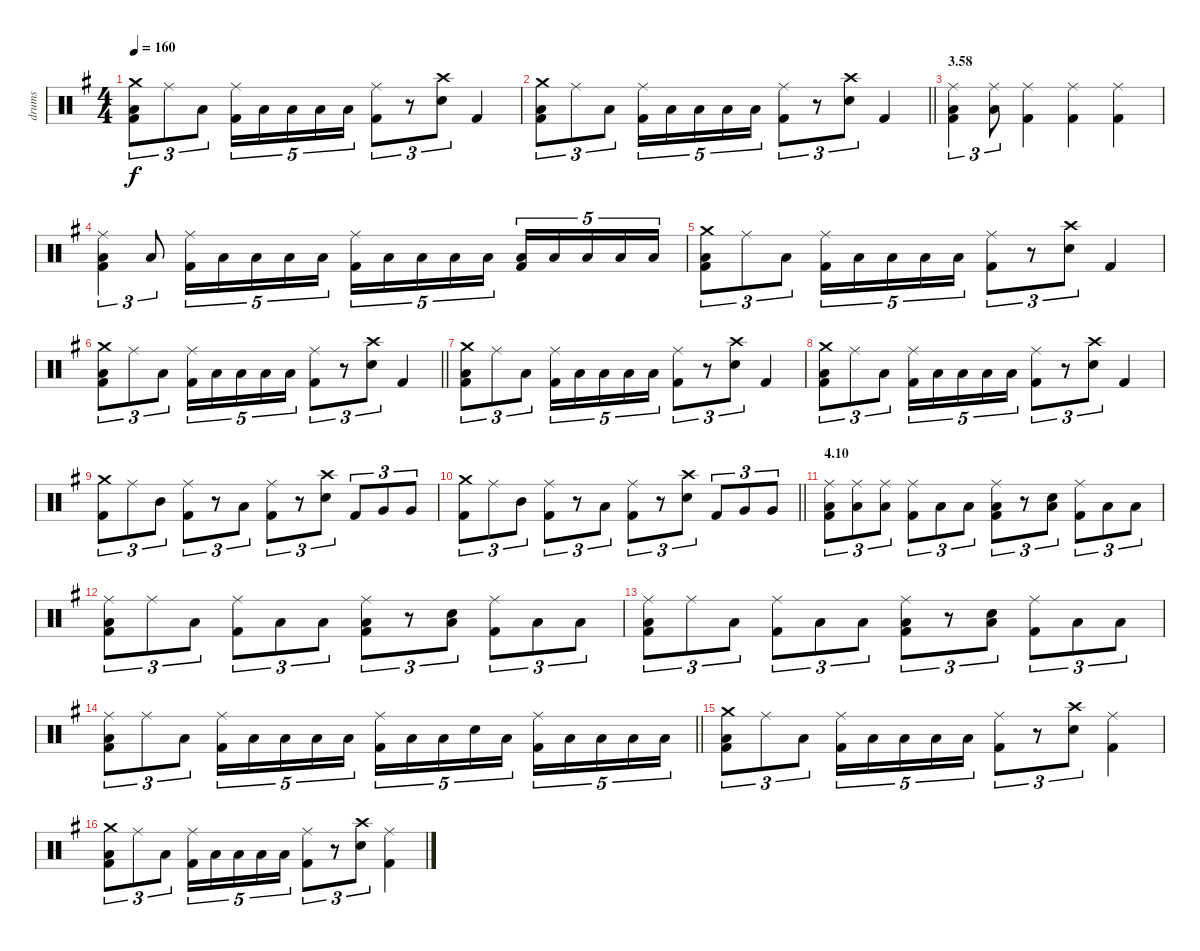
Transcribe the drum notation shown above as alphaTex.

\track ("drums" "drums") {instrument percussion}
\staff {score}
\articulation defaults
\ts (4 4)
\tempo 160
\clef neutral
\ks g
("Crash medium (hit)" "Low Tom (hit)" "Kick (hit) 2").8{tu (3 2) dy f} "Ride (middle)".8{tu (3 2)} "Low Tom (hit)".8{tu (3 2)} ("Ride (middle)" "Kick (hit) 2").16{tu (5 4)} "Low Tom (hit)".16{tu (5 4)} "Low Tom (hit)".16{tu (5 4)} "Low Tom (hit)".16{tu (5 4)} "Low Tom (hit)".16{tu (5 4)} ("Ride (middle)" "Kick (hit) 2").8{tu (3 2)} r.8{tu (3 2)} ("Crash high (hit)" "Electric Snare (hit)").8{tu (3 2)} "Kick (hit) 2".4 |
\barLineRight lightlight
("Crash medium (hit)" "Low Tom (hit)" "Kick (hit) 2").8{tu (3 2)} "Ride (middle)".8{tu (3 2)} "Low Tom (hit)".8{tu (3 2)} ("Ride (middle)" "Kick (hit) 2").16{tu (5 4)} "Low Tom (hit)".16{tu (5 4)} "Low Tom (hit)".16{tu (5 4)} "Low Tom (hit)".16{tu (5 4)} "Low Tom (hit)".16{tu (5 4)} ("Ride (middle)" "Kick (hit) 2").8{tu (3 2)} r.8{tu (3 2)} ("Crash high (hit)" "Electric Snare (hit)").8{tu (3 2)} "Kick (hit) 2".4 |
\section ("" "3.58")
("Ride (middle)" "Low Tom (hit)" "Kick (hit) 2").4{tu (3 2)} ("Ride (middle)" "Low Tom (hit)").8{tu (3 2)} ("Ride (middle)" "Kick (hit) 2").4 ("Ride (middle)" "Kick (hit) 2").4 ("Ride (middle)" "Kick (hit) 2").4 |
("Ride (middle)" "Low Tom (hit)" "Kick (hit) 2").4{tu (3 2)} "Low Tom (hit)".8{tu (3 2)} ("Ride (middle)" "Kick (hit) 2").16{tu (5 4)} "Low Tom (hit)".16{tu (5 4)} "Low Tom (hit)".16{tu (5 4)} "Low Tom (hit)".16{tu (5 4)} "Low Tom (hit)".16{tu (5 4)} ("Ride (middle)" "Kick (hit) 2").16{tu (5 4)} "Low Tom (hit)".16{tu (5 4)} "Low Tom (hit)".16{tu (5 4)} "Low Tom (hit)".16{tu (5 4)} "Low Tom (hit)".16{tu (5 4)} ("Low Tom (hit)" "Kick (hit) 2").16{tu (5 4)} "Low Tom (hit)".16{tu (5 4)} "Low Tom (hit)".16{tu (5 4)} "Low Tom (hit)".16{tu (5 4)} "Low Tom (hit)".16{tu (5 4)} |
("Crash medium (hit)" "Low Tom (hit)" "Kick (hit) 2").8{tu (3 2)} "Ride (middle)".8{tu (3 2)} "Low Tom (hit)".8{tu (3 2)} ("Ride (middle)" "Kick (hit) 2").16{tu (5 4)} "Low Tom (hit)".16{tu (5 4)} "Low Tom (hit)".16{tu (5 4)} "Low Tom (hit)".16{tu (5 4)} "Low Tom (hit)".16{tu (5 4)} ("Ride (middle)" "Kick (hit) 2").8{tu (3 2)} r.8{tu (3 2)} ("Crash high (hit)" "Electric Snare (hit)").8{tu (3 2)} "Kick (hit) 2".4 |
\barLineRight lightlight
("Crash medium (hit)" "Low Tom (hit)" "Kick (hit) 2").8{tu (3 2)} "Ride (middle)".8{tu (3 2)} "Low Tom (hit)".8{tu (3 2)} ("Ride (middle)" "Kick (hit) 2").16{tu (5 4)} "Low Tom (hit)".16{tu (5 4)} "Low Tom (hit)".16{tu (5 4)} "Low Tom (hit)".16{tu (5 4)} "Low Tom (hit)".16{tu (5 4)} ("Ride (middle)" "Kick (hit) 2").8{tu (3 2)} r.8{tu (3 2)} ("Crash high (hit)" "Electric Snare (hit)").8{tu (3 2)} "Kick (hit) 2".4 |
("Crash medium (hit)" "Low Tom (hit)" "Kick (hit) 2").8{tu (3 2)} "Ride (middle)".8{tu (3 2)} "Low Tom (hit)".8{tu (3 2)} ("Ride (middle)" "Kick (hit) 2").16{tu (5 4)} "Low Tom (hit)".16{tu (5 4)} "Low Tom (hit)".16{tu (5 4)} "Low Tom (hit)".16{tu (5 4)} "Low Tom (hit)".16{tu (5 4)} ("Ride (middle)" "Kick (hit) 2").8{tu (3 2)} r.8{tu (3 2)} ("Crash high (hit)" "Electric Snare (hit)").8{tu (3 2)} "Kick (hit) 2".4 |
("Crash medium (hit)" "Low Tom (hit)" "Kick (hit) 2").8{tu (3 2)} "Ride (middle)".8{tu (3 2)} "Low Tom (hit)".8{tu (3 2)} ("Ride (middle)" "Kick (hit) 2").16{tu (5 4)} "Low Tom (hit)".16{tu (5 4)} "Low Tom (hit)".16{tu (5 4)} "Low Tom (hit)".16{tu (5 4)} "Low Tom (hit)".16{tu (5 4)} ("Ride (middle)" "Kick (hit) 2").8{tu (3 2)} r.8{tu (3 2)} ("Crash high (hit)" "Electric Snare (hit)").8{tu (3 2)} "Kick (hit) 2".4 |
("Crash medium (hit)" "Kick (hit) 2").8{tu (3 2)} "Ride (middle)".8{tu (3 2)} "Mid Tom (hit)".8{tu (3 2)} ("Ride (middle)" "Kick (hit) 2").8{tu (3 2)} r.8{tu (3 2)} "Low Tom (hit)".8{tu (3 2)} ("Ride (middle)" "Kick (hit) 2").8{tu (3 2)} r.8{tu (3 2)} ("Crash high (hit)" "Electric Snare (hit)").8{tu (3 2)} "Kick (hit) 2".8{tu (3 2)} "Very Low Tom (hit)".8{tu (3 2)} "Very Low Tom (hit)".8{tu (3 2)} |
\barLineRight lightlight
("Crash medium (hit)" "Kick (hit) 2").8{tu (3 2)} "Ride (middle)".8{tu (3 2)} "Mid Tom (hit)".8{tu (3 2)} ("Ride (middle)" "Kick (hit) 2").8{tu (3 2)} r.8{tu (3 2)} "Low Tom (hit)".8{tu (3 2)} ("Ride (middle)" "Kick (hit) 2").8{tu (3 2)} r.8{tu (3 2)} ("Crash high (hit)" "Electric Snare (hit)").8{tu (3 2)} "Kick (hit) 2".8{tu (3 2)} "Very Low Tom (hit)".8{tu (3 2)} "Very Low Tom (hit)".8{tu (3 2)} |
\section ("" "4.10")
("Ride (middle)" "Low Tom (hit)" "Kick (hit) 2").8{tu (3 2)} ("Ride (middle)" "Low Tom (hit)").8{tu (3 2)} ("Ride (middle)" "Low Tom (hit)").8{tu (3 2)} ("Ride (middle)" "Kick (hit) 2").8{tu (3 2)} "Low Tom (hit)".8{tu (3 2)} "Low Tom (hit)".8{tu (3 2)} ("Ride (middle)" "Low Tom (hit)" "Kick (hit) 2").8{tu (3 2)} r.8{tu (3 2)} ("Low Tom (hit)" "Electric Snare (hit)").8{tu (3 2)} ("Ride (middle)" "Kick (hit) 2").8{tu (3 2)} "Low Tom (hit)".8{tu (3 2)} "Low Tom (hit)".8{tu (3 2)} |
("Ride (middle)" "Low Tom (hit)" "Kick (hit) 2").8{tu (3 2)} "Ride (middle)".8{tu (3 2)} "Low Tom (hit)".8{tu (3 2)} ("Ride (middle)" "Kick (hit) 2").8{tu (3 2)} "Low Tom (hit)".8{tu (3 2)} "Low Tom (hit)".8{tu (3 2)} ("Ride (middle)" "Low Tom (hit)" "Kick (hit) 2").8{tu (3 2)} r.8{tu (3 2)} ("Low Tom (hit)" "Electric Snare (hit)").8{tu (3 2)} ("Ride (middle)" "Kick (hit) 2").8{tu (3 2)} "Low Tom (hit)".8{tu (3 2)} "Low Tom (hit)".8{tu (3 2)} |
("Ride (middle)" "Low Tom (hit)" "Kick (hit) 2").8{tu (3 2)} "Ride (middle)".8{tu (3 2)} "Low Tom (hit)".8{tu (3 2)} ("Ride (middle)" "Kick (hit) 2").8{tu (3 2)} "Low Tom (hit)".8{tu (3 2)} "Low Tom (hit)".8{tu (3 2)} ("Ride (middle)" "Low Tom (hit)" "Kick (hit) 2").8{tu (3 2)} r.8{tu (3 2)} ("Low Tom (hit)" "Electric Snare (hit)").8{tu (3 2)} ("Ride (middle)" "Kick (hit) 2").8{tu (3 2)} "Low Tom (hit)".8{tu (3 2)} "Low Tom (hit)".8{tu (3 2)} |
\barLineRight lightlight
("Ride (middle)" "Low Tom (hit)" "Kick (hit) 2").8{tu (3 2)} "Ride (middle)".8{tu (3 2)} "Low Tom (hit)".8{tu (3 2)} ("Ride (middle)" "Kick (hit) 2").16{tu (5 4)} "Low Tom (hit)".16{tu (5 4)} "Low Tom (hit)".16{tu (5 4)} "Low Tom (hit)".16{tu (5 4)} "Low Tom (hit)".16{tu (5 4)} ("Ride (middle)" "Kick (hit) 2").16{tu (5 4)} "Low Tom (hit)".16{tu (5 4)} "Low Tom (hit)".16{tu (5 4)} "Electric Snare (hit)".16{tu (5 4)} "Low Tom (hit)".16{tu (5 4)} ("Ride (middle)" "Kick (hit) 2").16{tu (5 4)} "Low Tom (hit)".16{tu (5 4)} "Low Tom (hit)".16{tu (5 4)} "Low Tom (hit)".16{tu (5 4)} "Low Tom (hit)".16{tu (5 4)} |
("Crash medium (hit)" "Low Tom (hit)" "Kick (hit) 2").8{tu (3 2)} "Ride (middle)".8{tu (3 2)} "Low Tom (hit)".8{tu (3 2)} ("Ride (middle)" "Kick (hit) 2").16{tu (5 4)} "Low Tom (hit)".16{tu (5 4)} "Low Tom (hit)".16{tu (5 4)} "Low Tom (hit)".16{tu (5 4)} "Low Tom (hit)".16{tu (5 4)} ("Ride (middle)" "Kick (hit) 2").8{tu (3 2)} r.8{tu (3 2)} ("Crash high (hit)" "Electric Snare (hit)").8{tu (3 2)} ("Ride (middle)" "Kick (hit) 2").4 |
("Crash medium (hit)" "Low Tom (hit)" "Kick (hit) 2").8{tu (3 2)} "Ride (middle)".8{tu (3 2)} "Low Tom (hit)".8{tu (3 2)} ("Ride (middle)" "Kick (hit) 2").16{tu (5 4)} "Low Tom (hit)".16{tu (5 4)} "Low Tom (hit)".16{tu (5 4)} "Low Tom (hit)".16{tu (5 4)} "Low Tom (hit)".16{tu (5 4)} ("Ride (middle)" "Kick (hit) 2").8{tu (3 2)} r.8{tu (3 2)} ("Crash high (hit)" "Electric Snare (hit)").8{tu (3 2)} ("Ride (middle)" "Kick (hit) 2").4
